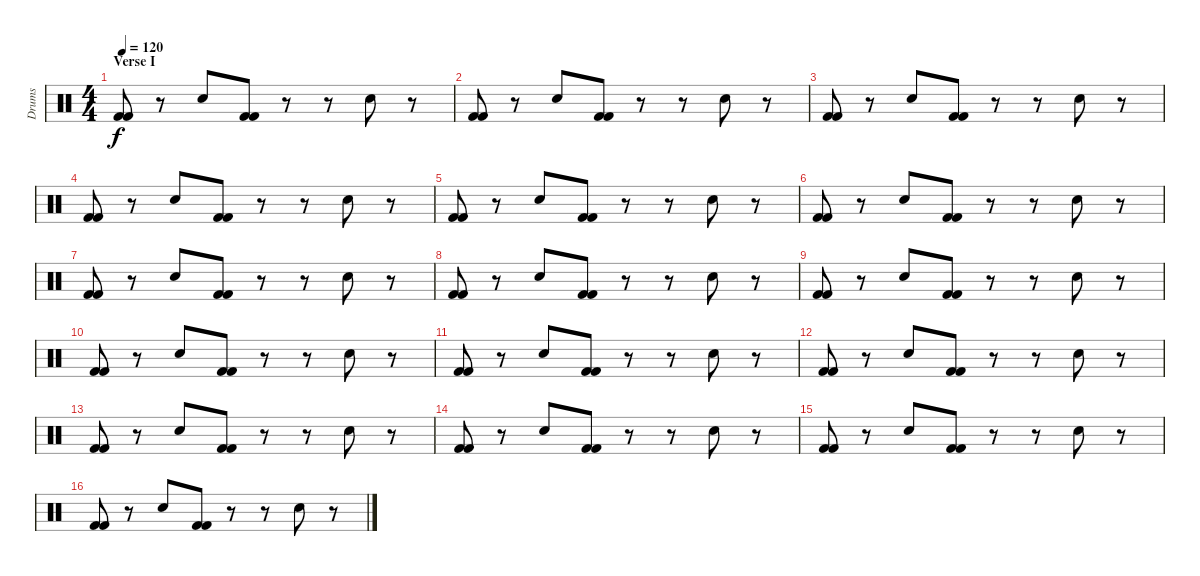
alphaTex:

\track ("Drums" "Drums") {instrument percussion}
\staff {score}
\articulation defaults
\ts (4 4)
\section ("" "Verse I")
\tempo 120
\clef neutral
\ks c
("Kick (hit) 2" "Kick (hit) 2").8{dy f} r.8 "Electric Snare (hit)".8 ("Kick (hit) 2" "Kick (hit) 2").8 r.8 r.8 "Electric Snare (hit)".8 r.8 |
("Kick (hit) 2" "Kick (hit) 2").8 r.8 "Electric Snare (hit)".8 ("Kick (hit) 2" "Kick (hit) 2").8 r.8 r.8 "Electric Snare (hit)".8 r.8 |
("Kick (hit) 2" "Kick (hit) 2").8 r.8 "Electric Snare (hit)".8 ("Kick (hit) 2" "Kick (hit) 2").8 r.8 r.8 "Electric Snare (hit)".8 r.8 |
("Kick (hit) 2" "Kick (hit) 2").8 r.8 "Electric Snare (hit)".8 ("Kick (hit) 2" "Kick (hit) 2").8 r.8 r.8 "Electric Snare (hit)".8 r.8 |
("Kick (hit) 2" "Kick (hit) 2").8 r.8 "Electric Snare (hit)".8 ("Kick (hit) 2" "Kick (hit) 2").8 r.8 r.8 "Electric Snare (hit)".8 r.8 |
("Kick (hit) 2" "Kick (hit) 2").8 r.8 "Electric Snare (hit)".8 ("Kick (hit) 2" "Kick (hit) 2").8 r.8 r.8 "Electric Snare (hit)".8 r.8 |
("Kick (hit) 2" "Kick (hit) 2").8 r.8 "Electric Snare (hit)".8 ("Kick (hit) 2" "Kick (hit) 2").8 r.8 r.8 "Electric Snare (hit)".8 r.8 |
("Kick (hit) 2" "Kick (hit) 2").8 r.8 "Electric Snare (hit)".8 ("Kick (hit) 2" "Kick (hit) 2").8 r.8 r.8 "Electric Snare (hit)".8 r.8 |
("Kick (hit) 2" "Kick (hit) 2").8 r.8 "Electric Snare (hit)".8 ("Kick (hit) 2" "Kick (hit) 2").8 r.8 r.8 "Electric Snare (hit)".8 r.8 |
("Kick (hit) 2" "Kick (hit) 2").8 r.8 "Electric Snare (hit)".8 ("Kick (hit) 2" "Kick (hit) 2").8 r.8 r.8 "Electric Snare (hit)".8 r.8 |
("Kick (hit) 2" "Kick (hit) 2").8 r.8 "Electric Snare (hit)".8 ("Kick (hit) 2" "Kick (hit) 2").8 r.8 r.8 "Electric Snare (hit)".8 r.8 |
("Kick (hit) 2" "Kick (hit) 2").8 r.8 "Electric Snare (hit)".8 ("Kick (hit) 2" "Kick (hit) 2").8 r.8 r.8 "Electric Snare (hit)".8 r.8 |
("Kick (hit) 2" "Kick (hit) 2").8 r.8 "Electric Snare (hit)".8 ("Kick (hit) 2" "Kick (hit) 2").8 r.8 r.8 "Electric Snare (hit)".8 r.8 |
("Kick (hit) 2" "Kick (hit) 2").8 r.8 "Electric Snare (hit)".8 ("Kick (hit) 2" "Kick (hit) 2").8 r.8 r.8 "Electric Snare (hit)".8 r.8 |
("Kick (hit) 2" "Kick (hit) 2").8 r.8 "Electric Snare (hit)".8 ("Kick (hit) 2" "Kick (hit) 2").8 r.8 r.8 "Electric Snare (hit)".8 r.8 |
("Kick (hit) 2" "Kick (hit) 2").8 r.8 "Electric Snare (hit)".8 ("Kick (hit) 2" "Kick (hit) 2").8 r.8 r.8 "Electric Snare (hit)".8 r.8
